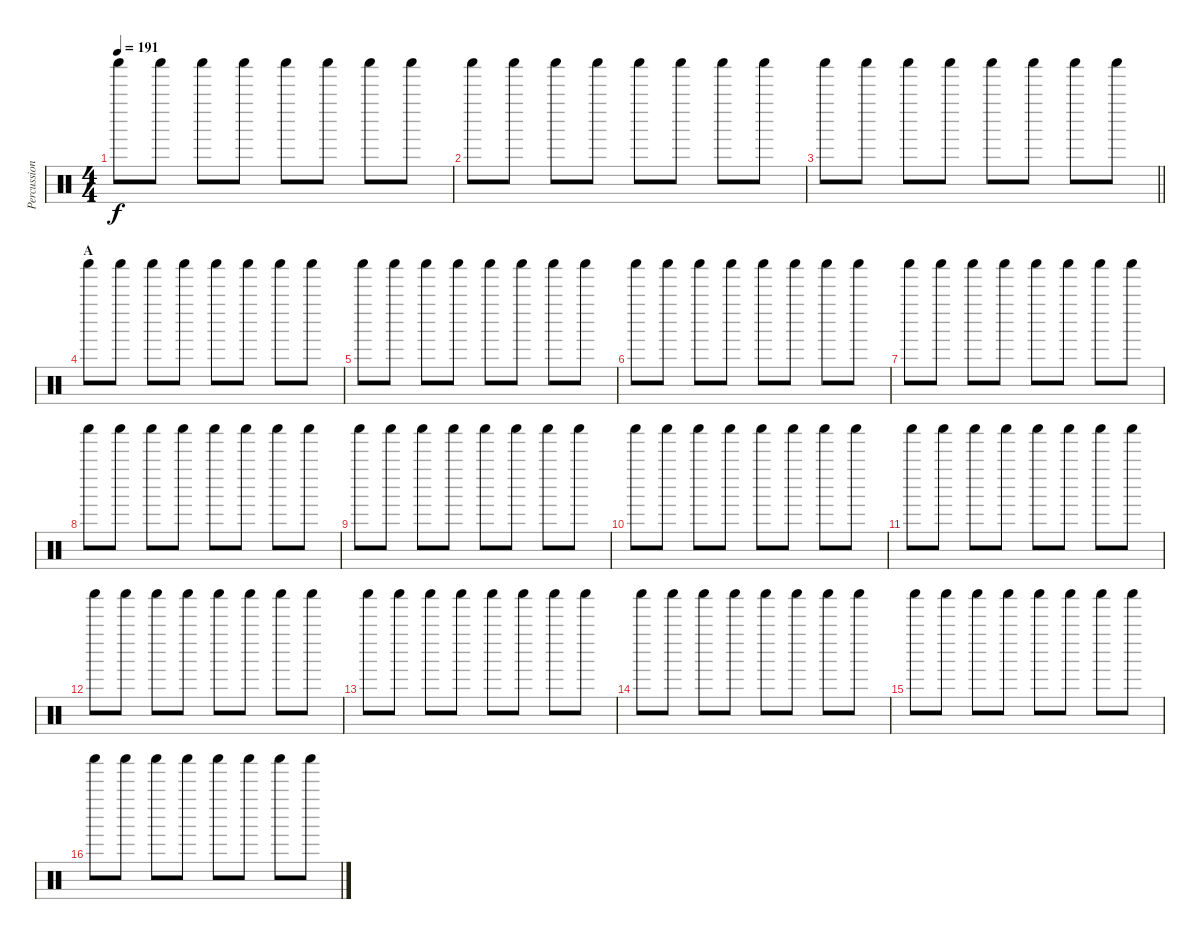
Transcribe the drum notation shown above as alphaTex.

\track ("Percussion" "Percussion") {instrument percussion}
\staff {score}
\articulation defaults
\ts (4 4)
\tempo 191
\clef neutral
\ks c "Shaker (hit)".8{dy f} "Shaker (hit)".8 "Shaker (hit)".8 "Shaker (hit)".8 "Shaker (hit)".8 "Shaker (hit)".8 "Shaker (hit)".8 "Shaker (hit)".8
|
"Shaker (hit)".8 "Shaker (hit)".8 "Shaker (hit)".8 "Shaker (hit)".8 "Shaker (hit)".8 "Shaker (hit)".8 "Shaker (hit)".8 "Shaker (hit)".8 |
\barLineRight lightlight "Shaker (hit)".8 "Shaker (hit)".8 "Shaker (hit)".8 "Shaker (hit)".8 "Shaker (hit)".8 "Shaker (hit)".8 "Shaker (hit)".8 "Shaker (hit)".8
|
\section ("" "A")
"Shaker (hit)".8 "Shaker (hit)".8 "Shaker (hit)".8 "Shaker (hit)".8 "Shaker (hit)".8 "Shaker (hit)".8 "Shaker (hit)".8 "Shaker (hit)".8 |
"Shaker (hit)".8 "Shaker (hit)".8 "Shaker (hit)".8 "Shaker (hit)".8 "Shaker (hit)".8 "Shaker (hit)".8 "Shaker (hit)".8 "Shaker (hit)".8 |
"Shaker (hit)".8 "Shaker (hit)".8 "Shaker (hit)".8 "Shaker (hit)".8 "Shaker (hit)".8 "Shaker (hit)".8 "Shaker (hit)".8 "Shaker (hit)".8 |
"Shaker (hit)".8 "Shaker (hit)".8 "Shaker (hit)".8 "Shaker (hit)".8 "Shaker (hit)".8 "Shaker (hit)".8 "Shaker (hit)".8 "Shaker (hit)".8 |
"Shaker (hit)".8 "Shaker (hit)".8 "Shaker (hit)".8 "Shaker (hit)".8 "Shaker (hit)".8 "Shaker (hit)".8 "Shaker (hit)".8 "Shaker (hit)".8 |
"Shaker (hit)".8 "Shaker (hit)".8 "Shaker (hit)".8 "Shaker (hit)".8 "Shaker (hit)".8 "Shaker (hit)".8 "Shaker (hit)".8 "Shaker (hit)".8 |
"Shaker (hit)".8 "Shaker (hit)".8 "Shaker (hit)".8 "Shaker (hit)".8 "Shaker (hit)".8 "Shaker (hit)".8 "Shaker (hit)".8 "Shaker (hit)".8 |
"Shaker (hit)".8 "Shaker (hit)".8 "Shaker (hit)".8 "Shaker (hit)".8 "Shaker (hit)".8 "Shaker (hit)".8 "Shaker (hit)".8 "Shaker (hit)".8 |
"Shaker (hit)".8 "Shaker (hit)".8 "Shaker (hit)".8 "Shaker (hit)".8 "Shaker (hit)".8 "Shaker (hit)".8 "Shaker (hit)".8 "Shaker (hit)".8 |
"Shaker (hit)".8 "Shaker (hit)".8 "Shaker (hit)".8 "Shaker (hit)".8 "Shaker (hit)".8 "Shaker (hit)".8 "Shaker (hit)".8 "Shaker (hit)".8 |
"Shaker (hit)".8 "Shaker (hit)".8 "Shaker (hit)".8 "Shaker (hit)".8 "Shaker (hit)".8 "Shaker (hit)".8 "Shaker (hit)".8 "Shaker (hit)".8 |
"Shaker (hit)".8 "Shaker (hit)".8 "Shaker (hit)".8 "Shaker (hit)".8 "Shaker (hit)".8 "Shaker (hit)".8 "Shaker (hit)".8 "Shaker (hit)".8 |
"Shaker (hit)".8 "Shaker (hit)".8 "Shaker (hit)".8 "Shaker (hit)".8 "Shaker (hit)".8 "Shaker (hit)".8 "Shaker (hit)".8 "Shaker (hit)".8
